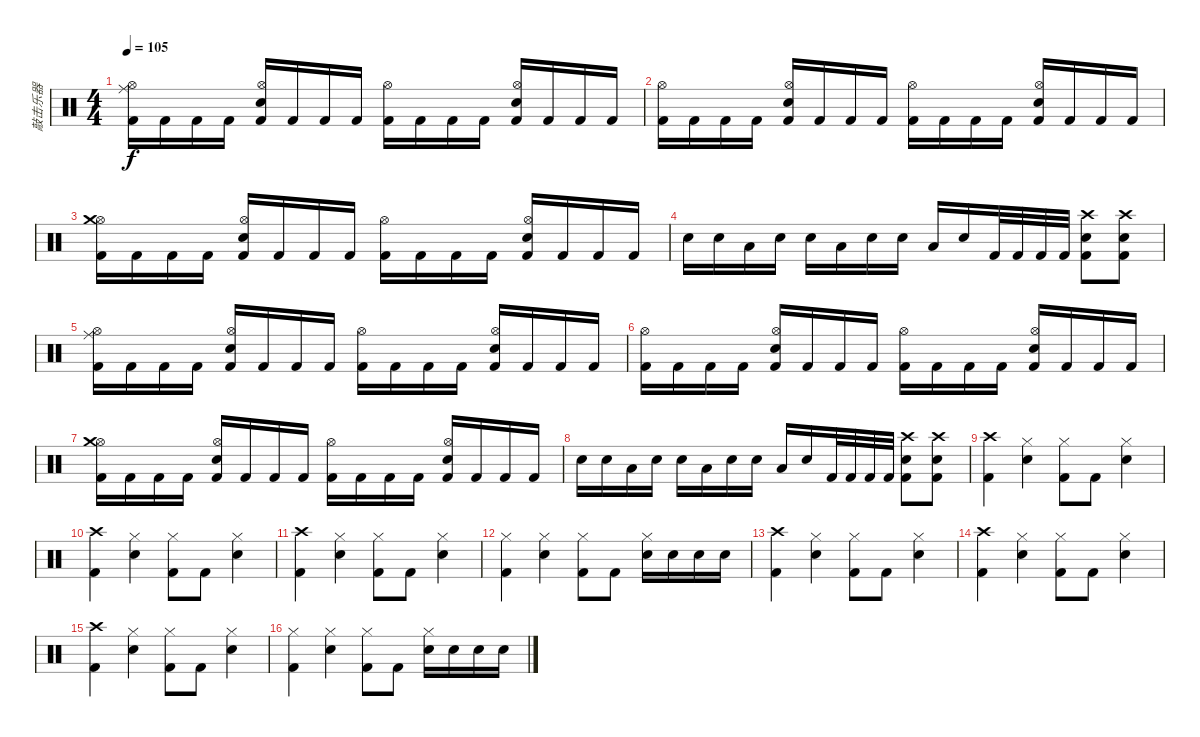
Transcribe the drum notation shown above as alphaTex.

\track ("敲击乐器" "敲击乐器") {instrument percussion}
\staff {score}
\articulation defaults
\ts (4 4)
\tempo 105
\clef neutral
\ks c
("Kick (hit) 2" "Hi-Hat (open)" "Ride (middle)").16{dy f} "Kick (hit) 2".16 "Kick (hit) 2".16 "Kick (hit) 2".16 ("Kick (hit) 2" "Electric Snare (hit)" "Hi-Hat (open)").16 "Kick (hit) 2".16 "Kick (hit) 2".16 "Kick (hit) 2".16 ("Kick (hit) 2" "Hi-Hat (open)").16 "Kick (hit) 2".16 "Kick (hit) 2".16 "Kick (hit) 2".16 ("Kick (hit) 2" "Electric Snare (hit)" "Hi-Hat (open)").16 "Kick (hit) 2".16 "Kick (hit) 2".16 "Kick (hit) 2".16 |
("Kick (hit) 2" "Hi-Hat (open)").16 "Kick (hit) 2".16 "Kick (hit) 2".16 "Kick (hit) 2".16 ("Kick (hit) 2" "Electric Snare (hit)" "Hi-Hat (open)").16 "Kick (hit) 2".16 "Kick (hit) 2".16 "Kick (hit) 2".16 ("Kick (hit) 2" "Hi-Hat (open)").16 "Kick (hit) 2".16 "Kick (hit) 2".16 "Kick (hit) 2".16 ("Kick (hit) 2" "Electric Snare (hit)" "Hi-Hat (open)").16 "Kick (hit) 2".16 "Kick (hit) 2".16 "Kick (hit) 2".16 |
("Kick (hit) 2" "Hi-Hat (open)" "Crash medium (hit)").16 "Kick (hit) 2".16 "Kick (hit) 2".16 "Kick (hit) 2".16 ("Kick (hit) 2" "Electric Snare (hit)" "Hi-Hat (open)").16 "Kick (hit) 2".16 "Kick (hit) 2".16 "Kick (hit) 2".16 ("Kick (hit) 2" "Hi-Hat (open)").16 "Kick (hit) 2".16 "Kick (hit) 2".16 "Kick (hit) 2".16 ("Kick (hit) 2" "Electric Snare (hit)" "Hi-Hat (open)").16 "Kick (hit) 2".16 "Kick (hit) 2".16 "Kick (hit) 2".16 |
"Electric Snare (hit)".16 "Electric Snare (hit)".16 "Low Tom (hit)".16 "Electric Snare (hit)".16 "Electric Snare (hit)".16 "Low Tom (hit)".16 "Electric Snare (hit)".16 "Electric Snare (hit)".16 "Low Tom (hit)".16 "Electric Snare (hit)".16 "Kick (hit) 2".32 "Kick (hit) 2".32 "Kick (hit) 2".32 "Kick (hit) 2".32 ("Kick (hit) 2" "Electric Snare (hit)" "Crash high (hit)").8 ("Kick (hit) 2" "Electric Snare (hit)" "Crash high (hit)").8 |
("Kick (hit) 2" "Hi-Hat (open)" "Ride (middle)").16 "Kick (hit) 2".16 "Kick (hit) 2".16 "Kick (hit) 2".16 ("Kick (hit) 2" "Electric Snare (hit)" "Hi-Hat (open)").16 "Kick (hit) 2".16 "Kick (hit) 2".16 "Kick (hit) 2".16 ("Kick (hit) 2" "Hi-Hat (open)").16 "Kick (hit) 2".16 "Kick (hit) 2".16 "Kick (hit) 2".16 ("Kick (hit) 2" "Electric Snare (hit)" "Hi-Hat (open)").16 "Kick (hit) 2".16 "Kick (hit) 2".16 "Kick (hit) 2".16 |
("Kick (hit) 2" "Hi-Hat (open)").16 "Kick (hit) 2".16 "Kick (hit) 2".16 "Kick (hit) 2".16 ("Kick (hit) 2" "Electric Snare (hit)" "Hi-Hat (open)").16 "Kick (hit) 2".16 "Kick (hit) 2".16 "Kick (hit) 2".16 ("Kick (hit) 2" "Hi-Hat (open)").16 "Kick (hit) 2".16 "Kick (hit) 2".16 "Kick (hit) 2".16 ("Kick (hit) 2" "Electric Snare (hit)" "Hi-Hat (open)").16 "Kick (hit) 2".16 "Kick (hit) 2".16 "Kick (hit) 2".16 |
("Kick (hit) 2" "Hi-Hat (open)" "Crash medium (hit)").16 "Kick (hit) 2".16 "Kick (hit) 2".16 "Kick (hit) 2".16 ("Kick (hit) 2" "Electric Snare (hit)" "Hi-Hat (open)").16 "Kick (hit) 2".16 "Kick (hit) 2".16 "Kick (hit) 2".16 ("Kick (hit) 2" "Hi-Hat (open)").16 "Kick (hit) 2".16 "Kick (hit) 2".16 "Kick (hit) 2".16 ("Kick (hit) 2" "Electric Snare (hit)" "Hi-Hat (open)").16 "Kick (hit) 2".16 "Kick (hit) 2".16 "Kick (hit) 2".16 |
"Electric Snare (hit)".16 "Electric Snare (hit)".16 "Low Tom (hit)".16 "Electric Snare (hit)".16 "Electric Snare (hit)".16 "Low Tom (hit)".16 "Electric Snare (hit)".16 "Electric Snare (hit)".16 "Low Tom (hit)".16 "Electric Snare (hit)".16 "Kick (hit) 2".32 "Kick (hit) 2".32 "Kick (hit) 2".32 "Kick (hit) 2".32 ("Kick (hit) 2" "Electric Snare (hit)" "Crash high (hit)").8 ("Kick (hit) 2" "Electric Snare (hit)" "Crash high (hit)").8 |
("Crash high (hit)" "Kick (hit) 2").4 ("Hi-Hat (closed)" "Snare (hit) 2").4 ("Hi-Hat (closed)" "Kick (hit) 2").8 "Kick (hit) 2".8 ("Hi-Hat (closed)" "Snare (hit) 2").4 |
("Crash high (hit)" "Kick (hit) 2").4 ("Hi-Hat (closed)" "Snare (hit) 2").4 ("Hi-Hat (closed)" "Kick (hit) 2").8 "Kick (hit) 2".8 ("Hi-Hat (closed)" "Snare (hit) 2").4 |
("Crash high (hit)" "Kick (hit) 2").4 ("Hi-Hat (closed)" "Snare (hit) 2").4 ("Hi-Hat (closed)" "Kick (hit) 2").8 "Kick (hit) 2".8 ("Hi-Hat (closed)" "Snare (hit) 2").4 |
("Hi-Hat (closed)" "Kick (hit) 2").4 ("Hi-Hat (closed)" "Snare (hit) 2").4 ("Hi-Hat (closed)" "Kick (hit) 2").8 "Kick (hit) 2".8 ("Hi-Hat (closed)" "Snare (hit) 2").16 "Snare (hit) 2".16 "Snare (hit) 2".16 "Snare (hit) 2".16 |
("Crash high (hit)" "Kick (hit) 2").4 ("Hi-Hat (closed)" "Snare (hit) 2").4 ("Hi-Hat (closed)" "Kick (hit) 2").8 "Kick (hit) 2".8 ("Hi-Hat (closed)" "Snare (hit) 2").4 |
("Crash high (hit)" "Kick (hit) 2").4 ("Hi-Hat (closed)" "Snare (hit) 2").4 ("Hi-Hat (closed)" "Kick (hit) 2").8 "Kick (hit) 2".8 ("Hi-Hat (closed)" "Snare (hit) 2").4 |
("Crash high (hit)" "Kick (hit) 2").4 ("Hi-Hat (closed)" "Snare (hit) 2").4 ("Hi-Hat (closed)" "Kick (hit) 2").8 "Kick (hit) 2".8 ("Hi-Hat (closed)" "Snare (hit) 2").4 |
("Hi-Hat (closed)" "Kick (hit) 2").4 ("Hi-Hat (closed)" "Snare (hit) 2").4 ("Hi-Hat (closed)" "Kick (hit) 2").8 "Kick (hit) 2".8 ("Hi-Hat (closed)" "Snare (hit) 2").16 "Snare (hit) 2".16 "Snare (hit) 2".16 "Snare (hit) 2".16
